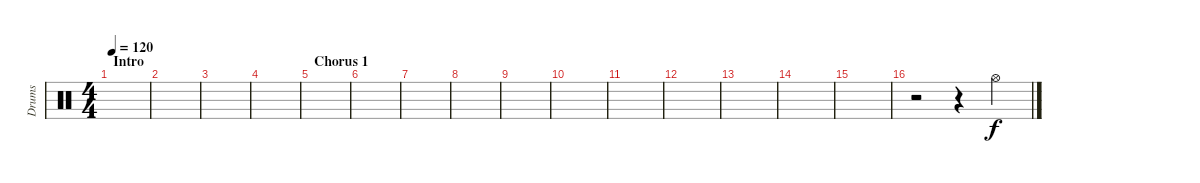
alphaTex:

\track ("Drums" "Drums") {instrument percussion}
\staff {score}
\articulation defaults
\ts (4 4)
\section ("" "Intro")
\tempo 120
\clef neutral
\ks c
|
|
|
|
\section ("" "Chorus 1")
|
|
|
|
|
|
|
|
|
|
|
r.2 r.4 "Hi-Hat (open)".4
